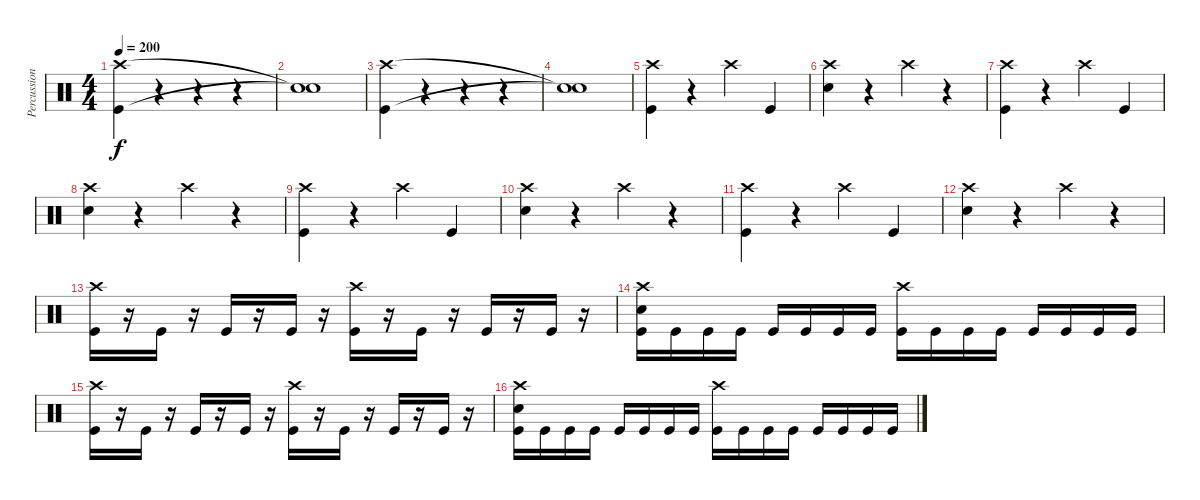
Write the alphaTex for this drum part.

\track ("Percussion" "Percussion") {instrument percussion}
\staff {score}
\articulation defaults
\ts (4 4)
\tempo 200
\clef neutral
\ks c
("Crash high (hit)" "Kick (hit)").4{dy f} r.4 r.4 r.4 |
("Snare (hit)"{t} "Snare (hit)"{t}).1 |
("Kick (hit)" "Crash high (hit)").4 r.4 r.4 r.4 |
("Snare (hit)"{t} "Snare (hit)"{t}).1 |
("Crash high (hit)" "Kick (hit)").4 r.4 "Crash high (hit)".4 "Kick (hit)".4 |
("Crash high (hit)" "Electric Snare (hit)").4 r.4 "Crash high (hit)".4 r.4 |
("Crash high (hit)" "Kick (hit)").4 r.4 "Crash high (hit)".4 "Kick (hit)".4 |
("Crash high (hit)" "Electric Snare (hit)").4 r.4 "Crash high (hit)".4 r.4 |
("Crash high (hit)" "Kick (hit)").4 r.4 "Crash high (hit)".4 "Kick (hit)".4 |
("Crash high (hit)" "Electric Snare (hit)").4 r.4 "Crash high (hit)".4 r.4 |
("Crash high (hit)" "Kick (hit)").4 r.4 "Crash high (hit)".4 "Kick (hit)".4 |
("Crash high (hit)" "Electric Snare (hit)").4 r.4 "Crash high (hit)".4 r.4 |
("Crash high (hit)" "Kick (hit)").16 r.16 "Kick (hit)".16 r.16 "Kick (hit)".16 r.16 "Kick (hit)".16 r.16 ("Crash high (hit)" "Kick (hit)").16 r.16 "Kick (hit)".16 r.16 "Kick (hit)".16 r.16 "Kick (hit)".16 r.16 |
("Crash high (hit)" "Electric Snare (hit)" "Kick (hit)").16 "Kick (hit)".16 "Kick (hit)".16 "Kick (hit)".16 "Kick (hit)".16 "Kick (hit)".16 "Kick (hit)".16 "Kick (hit)".16 ("Crash high (hit)" "Kick (hit)").16 "Kick (hit)".16 "Kick (hit)".16 "Kick (hit)".16 "Kick (hit)".16 "Kick (hit)".16 "Kick (hit)".16 "Kick (hit)".16 |
("Crash high (hit)" "Kick (hit)").16 r.16 "Kick (hit)".16 r.16 "Kick (hit)".16 r.16 "Kick (hit)".16 r.16 ("Crash high (hit)" "Kick (hit)").16 r.16 "Kick (hit)".16 r.16 "Kick (hit)".16 r.16 "Kick (hit)".16 r.16 |
("Crash high (hit)" "Electric Snare (hit)" "Kick (hit)").16 "Kick (hit)".16 "Kick (hit)".16 "Kick (hit)".16 "Kick (hit)".16 "Kick (hit)".16 "Kick (hit)".16 "Kick (hit)".16 ("Crash high (hit)" "Kick (hit)").16 "Kick (hit)".16 "Kick (hit)".16 "Kick (hit)".16 "Kick (hit)".16 "Kick (hit)".16 "Kick (hit)".16 "Kick (hit)".16
